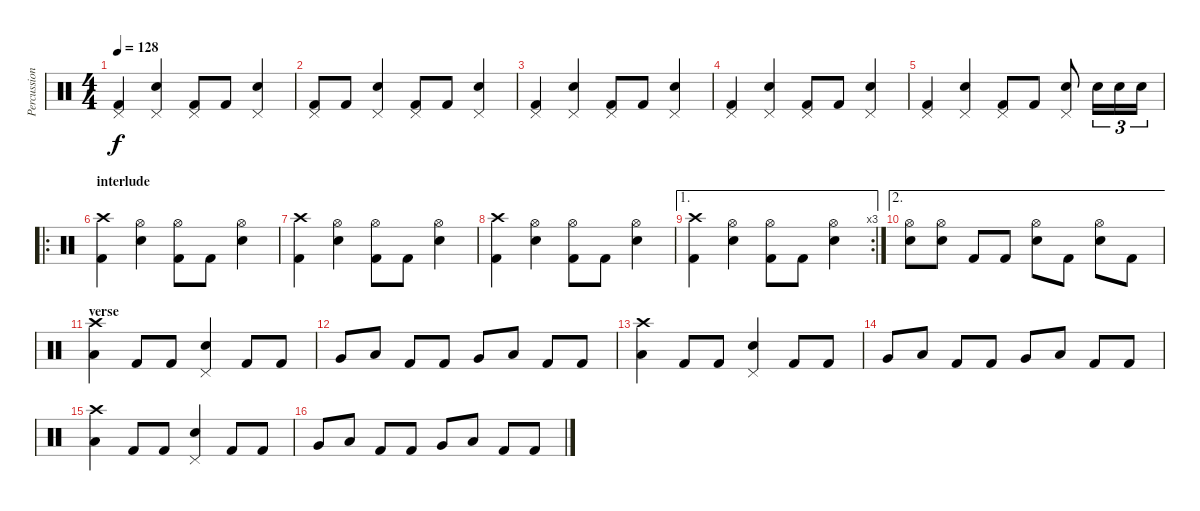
\track ("Percussion" "Percussion") {instrument percussion}
\staff {score}
\articulation defaults
\ts (4 4)
\tempo 128
\clef neutral
\ks c
("Pedal Hi-Hat (hit)" "Kick (hit) 2").4{dy f} ("Pedal Hi-Hat (hit)" "Electric Snare (hit)").4 ("Pedal Hi-Hat (hit)" "Kick (hit) 2").8 "Kick (hit) 2".8 ("Pedal Hi-Hat (hit)" "Electric Snare (hit)").4 |
("Pedal Hi-Hat (hit)" "Kick (hit) 2").8 "Kick (hit) 2".8 ("Pedal Hi-Hat (hit)" "Electric Snare (hit)").4 ("Pedal Hi-Hat (hit)" "Kick (hit) 2").8 "Kick (hit) 2".8 ("Pedal Hi-Hat (hit)" "Electric Snare (hit)").4 |
("Pedal Hi-Hat (hit)" "Kick (hit) 2").4 ("Pedal Hi-Hat (hit)" "Electric Snare (hit)").4 ("Pedal Hi-Hat (hit)" "Kick (hit) 2").8 "Kick (hit) 2".8 ("Pedal Hi-Hat (hit)" "Electric Snare (hit)").4 |
("Pedal Hi-Hat (hit)" "Kick (hit) 2").4 ("Pedal Hi-Hat (hit)" "Electric Snare (hit)").4 ("Pedal Hi-Hat (hit)" "Kick (hit) 2").8 "Kick (hit) 2".8 ("Pedal Hi-Hat (hit)" "Electric Snare (hit)").4 |
("Pedal Hi-Hat (hit)" "Kick (hit) 2").4 ("Pedal Hi-Hat (hit)" "Electric Snare (hit)").4 ("Pedal Hi-Hat (hit)" "Kick (hit) 2").8 "Kick (hit) 2".8 ("Pedal Hi-Hat (hit)" "Electric Snare (hit)").8 "Electric Snare (hit)".16{tu (3 2)} "Electric Snare (hit)".16{tu (3 2)} "Electric Snare (hit)".16{tu (3 2)} |
\ro
\section ("" "interlude")
("Crash high (hit)" "Kick (hit) 2").4 ("Hi-Hat (open)" "Electric Snare (hit)").4 ("Hi-Hat (open)" "Kick (hit) 2").8 "Kick (hit) 2".8 ("Hi-Hat (open)" "Electric Snare (hit)").4 |
("Crash high (hit)" "Kick (hit) 2").4 ("Hi-Hat (open)" "Electric Snare (hit)").4 ("Hi-Hat (open)" "Kick (hit) 2").8 "Kick (hit) 2".8 ("Hi-Hat (open)" "Electric Snare (hit)").4 |
("Crash high (hit)" "Kick (hit) 2").4 ("Hi-Hat (open)" "Electric Snare (hit)").4 ("Hi-Hat (open)" "Kick (hit) 2").8 "Kick (hit) 2".8 ("Hi-Hat (open)" "Electric Snare (hit)").4 |
\ae 1
\rc 3
("Crash high (hit)" "Kick (hit) 2").4 ("Hi-Hat (open)" "Electric Snare (hit)").4 ("Hi-Hat (open)" "Kick (hit) 2").8 "Kick (hit) 2".8 ("Hi-Hat (open)" "Electric Snare (hit)").4 |
\ae 2
("Hi-Hat (open)" "Electric Snare (hit)").8 ("Hi-Hat (open)" "Electric Snare (hit)").8 "Kick (hit) 2".8 "Kick (hit) 2".8 ("Hi-Hat (open)" "Electric Snare (hit)").8 "Kick (hit) 2".8 ("Hi-Hat (open)" "Electric Snare (hit)").8 "Kick (hit) 2".8 |
\section ("" "verse")
("Crash high (hit)" "Low Tom (hit)").4 "Kick (hit) 2".8 "Kick (hit) 2".8 ("Pedal Hi-Hat (hit)" "Electric Snare (hit)").4 "Kick (hit) 2".8 "Kick (hit) 2".8 |
"Very Low Tom (hit)".8 "Low Tom (hit)".8 "Kick (hit) 2".8 "Kick (hit) 2".8 "Very Low Tom (hit)".8 "Low Tom (hit)".8 "Kick (hit) 2".8 "Kick (hit) 2".8 |
("Crash high (hit)" "Low Tom (hit)").4 "Kick (hit) 2".8 "Kick (hit) 2".8 ("Pedal Hi-Hat (hit)" "Electric Snare (hit)").4 "Kick (hit) 2".8 "Kick (hit) 2".8 |
"Very Low Tom (hit)".8 "Low Tom (hit)".8 "Kick (hit) 2".8 "Kick (hit) 2".8 "Very Low Tom (hit)".8 "Low Tom (hit)".8 "Kick (hit) 2".8 "Kick (hit) 2".8 |
("Crash high (hit)" "Low Tom (hit)").4 "Kick (hit) 2".8 "Kick (hit) 2".8 ("Pedal Hi-Hat (hit)" "Electric Snare (hit)").4 "Kick (hit) 2".8 "Kick (hit) 2".8 |
"Very Low Tom (hit)".8 "Low Tom (hit)".8 "Kick (hit) 2".8 "Kick (hit) 2".8 "Very Low Tom (hit)".8 "Low Tom (hit)".8 "Kick (hit) 2".8 "Kick (hit) 2".8
